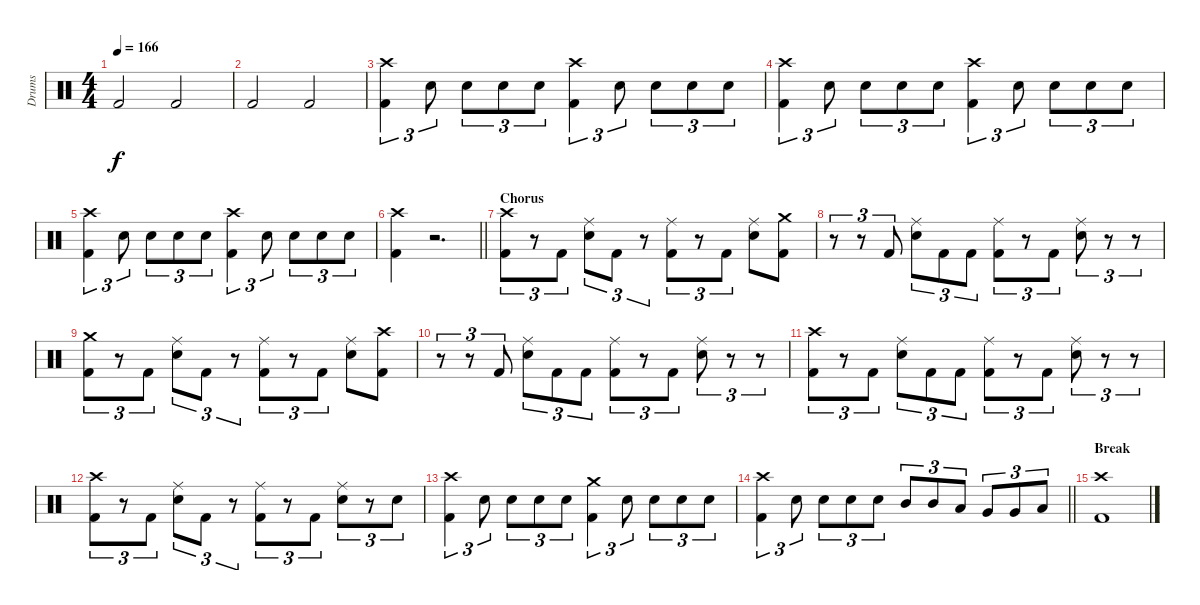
\track ("Drums" "Drums") {instrument percussion}
\staff {score}
\articulation defaults
\ts (4 4)
\tempo 166
\clef neutral
\ks c "Kick (hit) 2".2{dy f} "Kick (hit) 2".2
|
"Kick (hit) 2".2 "Kick (hit) 2".2 |
("Crash high (hit)" "Kick (hit) 2").4{tu (3 2)} "Snare (hit) 2".8{tu (3 2)} "Snare (hit) 2".8{tu (3 2)} "Snare (hit) 2".8{tu (3 2)} "Snare (hit) 2".8{tu (3 2)} ("Crash high (hit)" "Kick (hit) 2").4{tu (3 2)} "Snare (hit) 2".8{tu (3 2)} "Snare (hit) 2".8{tu (3 2)} "Snare (hit) 2".8{tu (3 2)} "Snare (hit) 2".8{tu (3 2)} |
("Crash high (hit)" "Kick (hit) 2").4{tu (3 2)} "Snare (hit) 2".8{tu (3 2)} "Snare (hit) 2".8{tu (3 2)} "Snare (hit) 2".8{tu (3 2)} "Snare (hit) 2".8{tu (3 2)} ("Crash high (hit)" "Kick (hit) 2").4{tu (3 2)} "Snare (hit) 2".8{tu (3 2)} "Snare (hit) 2".8{tu (3 2)} "Snare (hit) 2".8{tu (3 2)} "Snare (hit) 2".8{tu (3 2)} |
("Crash high (hit)" "Kick (hit) 2").4{tu (3 2)} "Snare (hit) 2".8{tu (3 2)} "Snare (hit) 2".8{tu (3 2)} "Snare (hit) 2".8{tu (3 2)} "Snare (hit) 2".8{tu (3 2)} ("Crash high (hit)" "Kick (hit) 2").4{tu (3 2)} "Snare (hit) 2".8{tu (3 2)} "Snare (hit) 2".8{tu (3 2)} "Snare (hit) 2".8{tu (3 2)} "Snare (hit) 2".8{tu (3 2)} |
\barLineRight lightlight
("Crash high (hit)" "Kick (hit) 2").4 r.2{d} |
\section ("" "Chorus")
("Crash high (hit)" "Kick (hit) 2").8{tu (3 2)} r.8{tu (3 2)} "Kick (hit) 2".8{tu (3 2)} ("Ride (middle)" "Snare (hit) 2").8{tu (3 2)} "Kick (hit) 2".8{tu (3 2)} r.8{tu (3 2)} ("Ride (middle)" "Kick (hit) 2").8{tu (3 2)} r.8{tu (3 2)} "Kick (hit) 2".8{tu (3 2)} ("Ride (middle)" "Snare (hit) 2").8 ("Crash medium (hit)" "Kick (hit) 2").8 |
r.8{tu (3 2)} r.8{tu (3 2)} "Kick (hit) 2".8{tu (3 2)} ("Ride (middle)" "Snare (hit) 2").8{tu (3 2)} "Kick (hit) 2".8{tu (3 2)} "Kick (hit) 2".8{tu (3 2)} ("Ride (middle)" "Kick (hit) 2").8{tu (3 2)} r.8{tu (3 2)} "Kick (hit) 2".8{tu (3 2)} ("Ride (middle)" "Snare (hit) 2").8{tu (3 2)} r.8{tu (3 2)} r.8{tu (3 2)} |
("Crash medium (hit)" "Kick (hit) 2").8{tu (3 2)} r.8{tu (3 2)} "Kick (hit) 2".8{tu (3 2)} ("Ride (middle)" "Snare (hit) 2").8{tu (3 2)} "Kick (hit) 2".8{tu (3 2)} r.8{tu (3 2)} ("Ride (middle)" "Kick (hit) 2").8{tu (3 2)} r.8{tu (3 2)} "Kick (hit) 2".8{tu (3 2)} ("Ride (middle)" "Snare (hit) 2").8 ("Crash high (hit)" "Kick (hit) 2").8 |
r.8{tu (3 2)} r.8{tu (3 2)} "Kick (hit) 2".8{tu (3 2)} ("Ride (middle)" "Snare (hit) 2").8{tu (3 2)} "Kick (hit) 2".8{tu (3 2)} "Kick (hit) 2".8{tu (3 2)} ("Ride (middle)" "Kick (hit) 2").8{tu (3 2)} r.8{tu (3 2)} "Kick (hit) 2".8{tu (3 2)} ("Ride (middle)" "Snare (hit) 2").8{tu (3 2)} r.8{tu (3 2)} r.8{tu (3 2)} |
("Crash high (hit)" "Kick (hit) 2").8{tu (3 2)} r.8{tu (3 2)} "Kick (hit) 2".8{tu (3 2)} ("Ride (middle)" "Snare (hit) 2").8{tu (3 2)} "Kick (hit) 2".8{tu (3 2)} "Kick (hit) 2".8{tu (3 2)} ("Ride (middle)" "Kick (hit) 2").8{tu (3 2)} r.8{tu (3 2)} "Kick (hit) 2".8{tu (3 2)} ("Ride (middle)" "Snare (hit) 2").8{tu (3 2)} r.8{tu (3 2)} r.8{tu (3 2)} |
("Crash high (hit)" "Kick (hit) 2").8{tu (3 2)} r.8{tu (3 2)} "Kick (hit) 2".8{tu (3 2)} ("Ride (middle)" "Snare (hit) 2").8{tu (3 2)} "Kick (hit) 2".8{tu (3 2)} r.8{tu (3 2)} ("Ride (middle)" "Kick (hit) 2").8{tu (3 2)} r.8{tu (3 2)} "Kick (hit) 2".8{tu (3 2)} ("Ride (middle)" "Snare (hit) 2").8{tu (3 2)} r.8{tu (3 2)} "Snare (hit) 2".8{tu (3 2)} |
("Crash high (hit)" "Kick (hit) 2").4{tu (3 2)} "Snare (hit) 2".8{tu (3 2)} "Snare (hit) 2".8{tu (3 2)} "Snare (hit) 2".8{tu (3 2)} "Snare (hit) 2".8{tu (3 2)} ("Crash medium (hit)" "Kick (hit) 2").4{tu (3 2)} "Snare (hit) 2".8{tu (3 2)} "Snare (hit) 2".8{tu (3 2)} "Snare (hit) 2".8{tu (3 2)} "Snare (hit) 2".8{tu (3 2)} |
\barLineRight lightlight
("Crash high (hit)" "Kick (hit) 2").4{tu (3 2)} "Snare (hit) 2".8{tu (3 2)} "Snare (hit) 2".8{tu (3 2)} "Snare (hit) 2".8{tu (3 2)} "Snare (hit) 2".8{tu (3 2)} "Mid Tom (hit)".8{tu (3 2)} "Mid Tom (hit)".8{tu (3 2)} "Low Tom (hit)".8{tu (3 2)} "Very Low Tom (hit)".8{tu (3 2)} "Very Low Tom (hit)".8{tu (3 2)} "Low Floor Tom (hit)".8{tu (3 2)} |
\section ("" "Break")
("Crash high (hit)" "Kick (hit) 2").1
